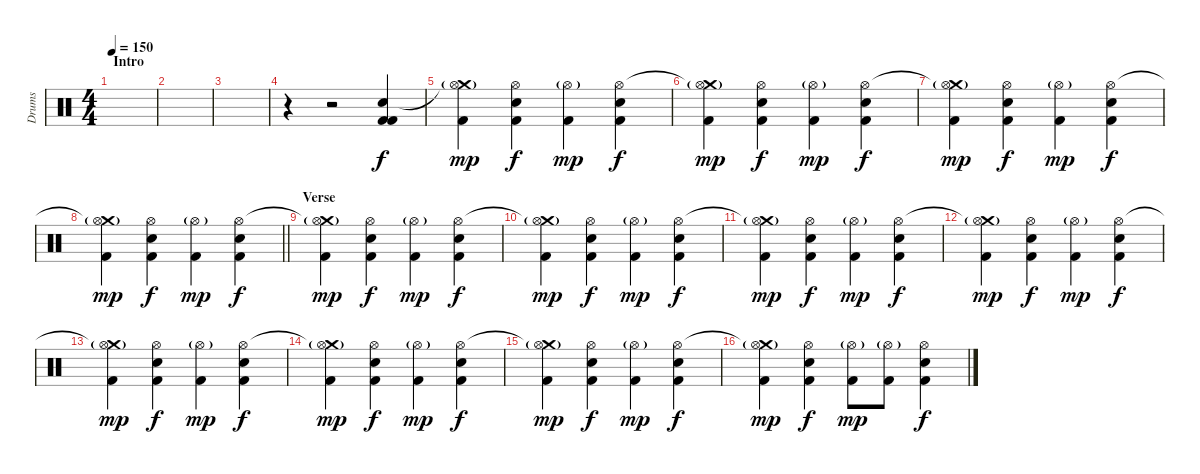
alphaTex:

\track ("Drums" "Drums") {instrument percussion}
\staff {score}
\articulation defaults
\ts (4 4)
\section ("" "Intro")
\tempo 150
\clef neutral
\ks c
|
|
|
r.4 r.2 ("Electric Snare (hit)" "Kick (hit) 2" "Kick (hit) 2").4 |
("Crash medium (hit)"{t} "Hi-Hat (open)"{g} "Kick (hit) 2").4{dy mp} ("Hi-Hat (open)" "Electric Snare (hit)" "Kick (hit) 2").4{dy f} ("Hi-Hat (open)"{g} "Kick (hit) 2").4{dy mp} ("Hi-Hat (open)" "Electric Snare (hit)" "Kick (hit) 2").4{dy f} |
("Crash medium (hit)"{t} "Hi-Hat (open)"{g} "Kick (hit) 2").4{dy mp} ("Hi-Hat (open)" "Electric Snare (hit)" "Kick (hit) 2").4{dy f} ("Hi-Hat (open)"{g} "Kick (hit) 2").4{dy mp} ("Hi-Hat (open)" "Electric Snare (hit)" "Kick (hit) 2").4{dy f} |
("Crash medium (hit)"{t} "Hi-Hat (open)"{g} "Kick (hit) 2").4{dy mp} ("Hi-Hat (open)" "Electric Snare (hit)" "Kick (hit) 2").4{dy f} ("Hi-Hat (open)"{g} "Kick (hit) 2").4{dy mp} ("Hi-Hat (open)" "Electric Snare (hit)" "Kick (hit) 2").4{dy f} |
\barLineRight lightlight
("Crash medium (hit)"{t} "Hi-Hat (open)"{g} "Kick (hit) 2").4{dy mp} ("Hi-Hat (open)" "Electric Snare (hit)" "Kick (hit) 2").4{dy f} ("Hi-Hat (open)"{g} "Kick (hit) 2").4{dy mp} ("Hi-Hat (open)" "Electric Snare (hit)" "Kick (hit) 2").4{dy f} |
\section ("" "Verse")
("Crash medium (hit)"{t} "Hi-Hat (open)"{g} "Kick (hit) 2").4{dy mp} ("Hi-Hat (open)" "Electric Snare (hit)" "Kick (hit) 2").4{dy f} ("Hi-Hat (open)"{g} "Kick (hit) 2").4{dy mp} ("Hi-Hat (open)" "Electric Snare (hit)" "Kick (hit) 2").4{dy f} |
("Crash medium (hit)"{t} "Hi-Hat (open)"{g} "Kick (hit) 2").4{dy mp} ("Hi-Hat (open)" "Electric Snare (hit)" "Kick (hit) 2").4{dy f} ("Hi-Hat (open)"{g} "Kick (hit) 2").4{dy mp} ("Hi-Hat (open)" "Electric Snare (hit)" "Kick (hit) 2").4{dy f} |
("Crash medium (hit)"{t} "Hi-Hat (open)"{g} "Kick (hit) 2").4{dy mp} ("Hi-Hat (open)" "Electric Snare (hit)" "Kick (hit) 2").4{dy f} ("Hi-Hat (open)"{g} "Kick (hit) 2").4{dy mp} ("Hi-Hat (open)" "Electric Snare (hit)" "Kick (hit) 2").4{dy f} |
("Crash medium (hit)"{t} "Hi-Hat (open)"{g} "Kick (hit) 2").4{dy mp} ("Hi-Hat (open)" "Electric Snare (hit)" "Kick (hit) 2").4{dy f} ("Hi-Hat (open)"{g} "Kick (hit) 2").4{dy mp} ("Hi-Hat (open)" "Electric Snare (hit)" "Kick (hit) 2").4{dy f} |
("Crash medium (hit)"{t} "Hi-Hat (open)"{g} "Kick (hit) 2").4{dy mp} ("Hi-Hat (open)" "Electric Snare (hit)" "Kick (hit) 2").4{dy f} ("Hi-Hat (open)"{g} "Kick (hit) 2").4{dy mp} ("Hi-Hat (open)" "Electric Snare (hit)" "Kick (hit) 2").4{dy f} |
("Crash medium (hit)"{t} "Hi-Hat (open)"{g} "Kick (hit) 2").4{dy mp} ("Hi-Hat (open)" "Electric Snare (hit)" "Kick (hit) 2").4{dy f} ("Hi-Hat (open)"{g} "Kick (hit) 2").4{dy mp} ("Hi-Hat (open)" "Electric Snare (hit)" "Kick (hit) 2").4{dy f} |
("Crash medium (hit)"{t} "Hi-Hat (open)"{g} "Kick (hit) 2").4{dy mp} ("Hi-Hat (open)" "Electric Snare (hit)" "Kick (hit) 2").4{dy f} ("Hi-Hat (open)"{g} "Kick (hit) 2").4{dy mp} ("Hi-Hat (open)" "Electric Snare (hit)" "Kick (hit) 2").4{dy f} |
("Crash medium (hit)"{t} "Hi-Hat (open)"{g} "Kick (hit) 2").4{dy mp} ("Hi-Hat (open)" "Electric Snare (hit)" "Kick (hit) 2").4{dy f} ("Hi-Hat (open)"{g} "Kick (hit) 2").8{dy mp} ("Hi-Hat (open)"{g} "Kick (hit) 2").8 ("Hi-Hat (open)" "Electric Snare (hit)" "Kick (hit) 2").4{dy f}
